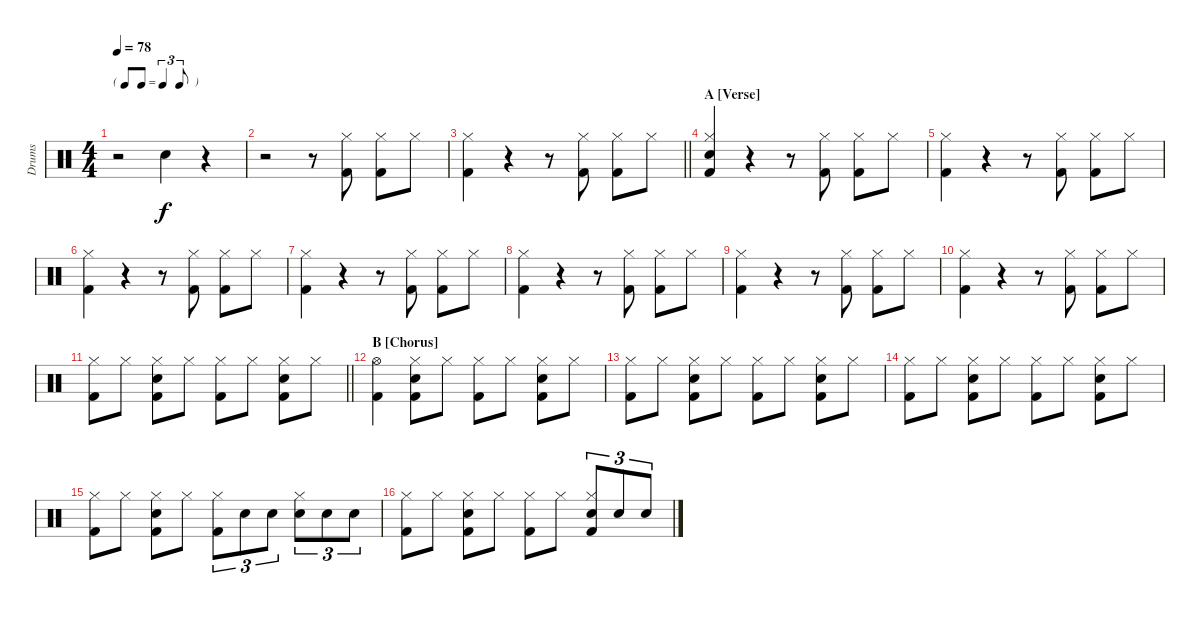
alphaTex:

\track ("Drums" "Drums") {instrument percussion}
\staff {score}
\articulation defaults
\ts (4 4)
\tf triplet8th
\tempo 78
\clef neutral
\ks c
r.2{dy f} "Snare (hit) 2".4 r.4 |
r.2 r.8 ("Hi-Hat (closed)" "Kick (hit) 2").8 ("Hi-Hat (closed)" "Kick (hit) 2").8 "Hi-Hat (closed)".8 |
\barLineRight lightlight
("Hi-Hat (closed)" "Kick (hit) 2").4 r.4 r.8 ("Hi-Hat (closed)" "Kick (hit) 2").8 ("Hi-Hat (closed)" "Kick (hit) 2").8 "Hi-Hat (closed)".8 |
\section ("" "A [Verse]")
("Hi-Hat (closed)" "Snare (hit) 2" "Kick (hit) 2").4 r.4 r.8 ("Hi-Hat (closed)" "Kick (hit) 2").8 ("Hi-Hat (closed)" "Kick (hit) 2").8 "Hi-Hat (closed)".8 |
("Hi-Hat (closed)" "Kick (hit) 2").4 r.4 r.8 ("Hi-Hat (closed)" "Kick (hit) 2").8 ("Hi-Hat (closed)" "Kick (hit) 2").8 "Hi-Hat (closed)".8 |
("Hi-Hat (closed)" "Kick (hit) 2").4 r.4 r.8 ("Hi-Hat (closed)" "Kick (hit) 2").8 ("Hi-Hat (closed)" "Kick (hit) 2").8 "Hi-Hat (closed)".8 |
("Hi-Hat (closed)" "Kick (hit) 2").4 r.4 r.8 ("Hi-Hat (closed)" "Kick (hit) 2").8 ("Hi-Hat (closed)" "Kick (hit) 2").8 "Hi-Hat (closed)".8 |
("Hi-Hat (closed)" "Kick (hit) 2").4 r.4 r.8 ("Hi-Hat (closed)" "Kick (hit) 2").8 ("Hi-Hat (closed)" "Kick (hit) 2").8 "Hi-Hat (closed)".8 |
("Hi-Hat (closed)" "Kick (hit) 2").4 r.4 r.8 ("Hi-Hat (closed)" "Kick (hit) 2").8 ("Hi-Hat (closed)" "Kick (hit) 2").8 "Hi-Hat (closed)".8 |
("Hi-Hat (closed)" "Kick (hit) 2").4 r.4 r.8 ("Hi-Hat (closed)" "Kick (hit) 2").8 ("Hi-Hat (closed)" "Kick (hit) 2").8 "Hi-Hat (closed)".8 |
\barLineRight lightlight
("Hi-Hat (closed)" "Kick (hit) 2").8 "Hi-Hat (closed)".8 ("Hi-Hat (closed)" "Snare (hit) 2" "Kick (hit) 2").8 "Hi-Hat (closed)".8 ("Hi-Hat (closed)" "Kick (hit) 2").8 "Hi-Hat (closed)".8 ("Hi-Hat (closed)" "Snare (hit) 2" "Kick (hit) 2").8 "Hi-Hat (closed)".8 |
\section ("" "B [Chorus]")
("Hi-Hat (open)" "Kick (hit) 2").4 ("Hi-Hat (closed)" "Snare (hit) 2" "Kick (hit) 2").8 "Hi-Hat (closed)".8 ("Hi-Hat (closed)" "Kick (hit) 2").8 "Hi-Hat (closed)".8 ("Hi-Hat (closed)" "Snare (hit) 2" "Kick (hit) 2").8 "Hi-Hat (closed)".8 |
("Hi-Hat (closed)" "Kick (hit) 2").8 "Hi-Hat (closed)".8 ("Hi-Hat (closed)" "Snare (hit) 2" "Kick (hit) 2").8 "Hi-Hat (closed)".8 ("Hi-Hat (closed)" "Kick (hit) 2").8 "Hi-Hat (closed)".8 ("Hi-Hat (closed)" "Snare (hit) 2" "Kick (hit) 2").8 "Hi-Hat (closed)".8 |
("Hi-Hat (closed)" "Kick (hit) 2").8 "Hi-Hat (closed)".8 ("Hi-Hat (closed)" "Snare (hit) 2" "Kick (hit) 2").8 "Hi-Hat (closed)".8 ("Hi-Hat (closed)" "Kick (hit) 2").8 "Hi-Hat (closed)".8 ("Hi-Hat (closed)" "Snare (hit) 2" "Kick (hit) 2").8 "Hi-Hat (closed)".8 |
("Hi-Hat (closed)" "Kick (hit) 2").8 "Hi-Hat (closed)".8 ("Hi-Hat (closed)" "Kick (hit) 2" "Snare (hit) 2").8 "Hi-Hat (closed)".8 ("Hi-Hat (closed)" "Kick (hit) 2").8{tu (3 2)} "Snare (hit) 2".8{tu (3 2)} "Snare (hit) 2".8{tu (3 2)} ("Hi-Hat (closed)" "Snare (hit) 2").8{tu (3 2)} "Snare (hit) 2".8{tu (3 2)} "Snare (hit) 2".8{tu (3 2)} |
("Hi-Hat (closed)" "Kick (hit) 2").8 "Hi-Hat (closed)".8 ("Hi-Hat (closed)" "Snare (hit) 2" "Kick (hit) 2").8 "Hi-Hat (closed)".8 ("Hi-Hat (closed)" "Kick (hit) 2").8 "Hi-Hat (closed)".8 ("Hi-Hat (closed)" "Snare (hit) 2" "Kick (hit) 2").8{tu (3 2)} "Snare (hit) 2".8{tu (3 2)} "Snare (hit) 2".8{tu (3 2)}
